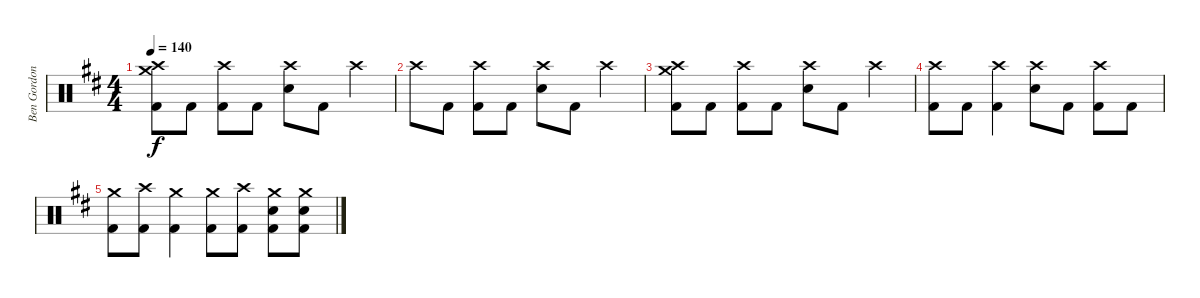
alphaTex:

\track ("Ben Gordon" "Ben Gordon") {instrument percussion}
\staff {score}
\articulation defaults
\ts (4 4)
\tempo 140
\clef neutral
\ks d
("Crash medium (hit)" "Crash high (hit)" "Kick (hit) 2").8{dy f} "Kick (hit) 2".8 ("Crash high (hit)" "Kick (hit) 2").8 "Kick (hit) 2".8 ("Crash high (hit)" "Electric Snare (hit)").8 "Kick (hit) 2".8 "Crash high (hit)".4 |
"Crash high (hit)".8 "Kick (hit) 2".8 ("Crash high (hit)" "Kick (hit) 2").8 "Kick (hit) 2".8 ("Crash high (hit)" "Electric Snare (hit)").8 "Kick (hit) 2".8 "Crash high (hit)".4 |
("Crash medium (hit)" "Crash high (hit)" "Kick (hit) 2").8 "Kick (hit) 2".8 ("Crash high (hit)" "Kick (hit) 2").8 "Kick (hit) 2".8 ("Crash high (hit)" "Electric Snare (hit)").8 "Kick (hit) 2".8 "Crash high (hit)".4 |
("Crash high (hit)" "Kick (hit) 2").8 "Kick (hit) 2".8 ("Crash high (hit)" "Kick (hit) 2").4 ("Crash high (hit)" "Electric Snare (hit)").8 "Kick (hit) 2".8 ("Crash high (hit)" "Kick (hit) 2").8 "Kick (hit) 2".8 |
("Crash medium (hit)" "Kick (hit) 2").8 ("Crash high (hit)" "Kick (hit) 2").8 ("Crash medium (hit)" "Kick (hit) 2").4 ("Crash medium (hit)" "Kick (hit) 2").8 ("Crash high (hit)" "Kick (hit) 2").8 ("Crash medium (hit)" "Electric Snare (hit)" "Kick (hit) 2").8 ("Crash medium (hit)" "Electric Snare (hit)" "Kick (hit) 2").8
